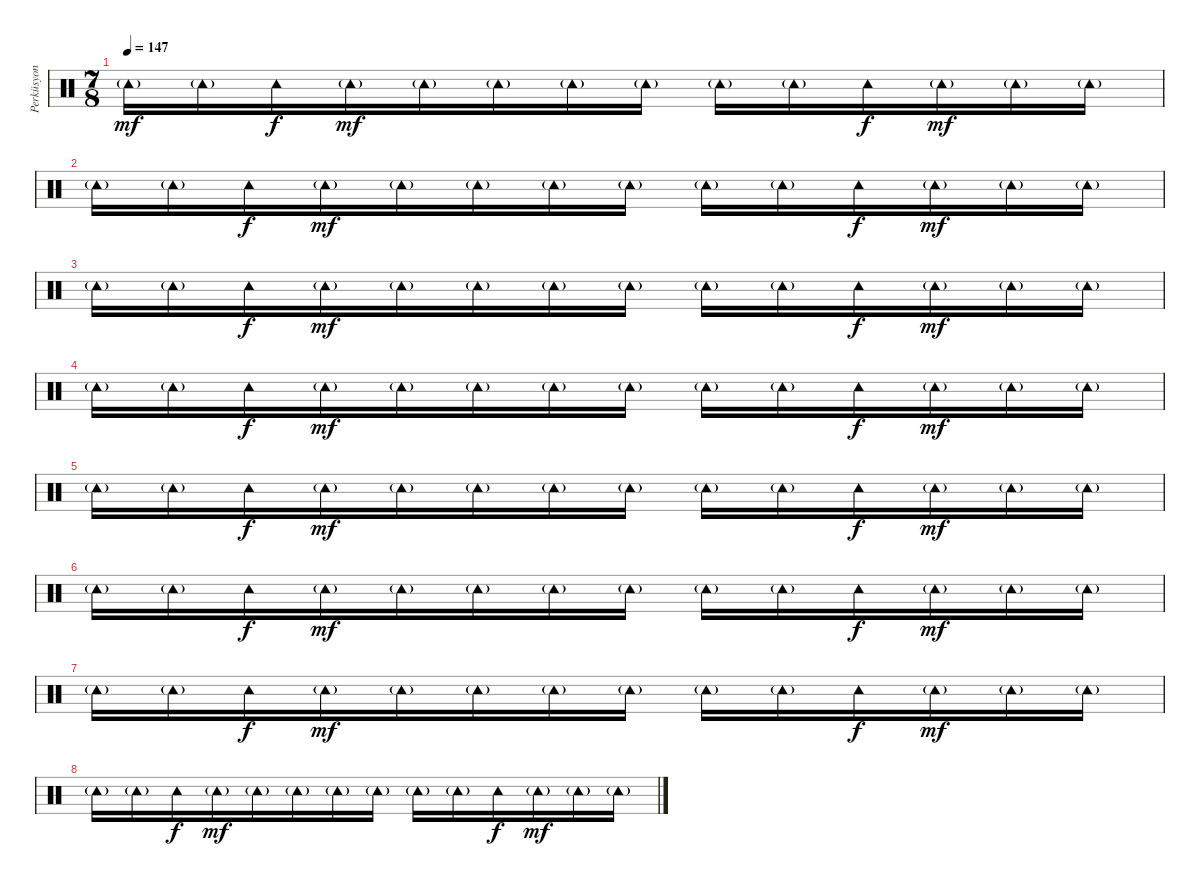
\track ("Perküsyon" "Perküsyon") {instrument percussion}
\staff {score}
\articulation defaults
\ts (7 8)
\tempo 147
\clef neutral
\ks c "Tambourine (hit)"{g}.16{dy mf} "Tambourine (hit)"{g}.16 "Tambourine (hit)".16{dy f} "Tambourine (hit)"{g}.16{dy mf} "Tambourine (hit)"{g}.16 "Tambourine (hit)"{g}.16 "Tambourine (hit)"{g}.16 "Tambourine (hit)"{g}.16 "Tambourine (hit)"{g}.16 "Tambourine (hit)"{g}.16 "Tambourine (hit)".16{dy f} "Tambourine (hit)"{g}.16{dy mf} "Tambourine (hit)"{g}.16 "Tambourine (hit)"{g}.16
|
"Tambourine (hit)"{g}.16 "Tambourine (hit)"{g}.16 "Tambourine (hit)".16{dy f} "Tambourine (hit)"{g}.16{dy mf} "Tambourine (hit)"{g}.16 "Tambourine (hit)"{g}.16 "Tambourine (hit)"{g}.16 "Tambourine (hit)"{g}.16 "Tambourine (hit)"{g}.16 "Tambourine (hit)"{g}.16 "Tambourine (hit)".16{dy f} "Tambourine (hit)"{g}.16{dy mf} "Tambourine (hit)"{g}.16 "Tambourine (hit)"{g}.16 |
"Tambourine (hit)"{g}.16 "Tambourine (hit)"{g}.16 "Tambourine (hit)".16{dy f} "Tambourine (hit)"{g}.16{dy mf} "Tambourine (hit)"{g}.16 "Tambourine (hit)"{g}.16 "Tambourine (hit)"{g}.16 "Tambourine (hit)"{g}.16 "Tambourine (hit)"{g}.16 "Tambourine (hit)"{g}.16 "Tambourine (hit)".16{dy f} "Tambourine (hit)"{g}.16{dy mf} "Tambourine (hit)"{g}.16 "Tambourine (hit)"{g}.16 |
"Tambourine (hit)"{g}.16 "Tambourine (hit)"{g}.16 "Tambourine (hit)".16{dy f} "Tambourine (hit)"{g}.16{dy mf} "Tambourine (hit)"{g}.16 "Tambourine (hit)"{g}.16 "Tambourine (hit)"{g}.16 "Tambourine (hit)"{g}.16 "Tambourine (hit)"{g}.16 "Tambourine (hit)"{g}.16 "Tambourine (hit)".16{dy f} "Tambourine (hit)"{g}.16{dy mf} "Tambourine (hit)"{g}.16 "Tambourine (hit)"{g}.16 |
"Tambourine (hit)"{g}.16 "Tambourine (hit)"{g}.16 "Tambourine (hit)".16{dy f} "Tambourine (hit)"{g}.16{dy mf} "Tambourine (hit)"{g}.16 "Tambourine (hit)"{g}.16 "Tambourine (hit)"{g}.16 "Tambourine (hit)"{g}.16 "Tambourine (hit)"{g}.16 "Tambourine (hit)"{g}.16 "Tambourine (hit)".16{dy f} "Tambourine (hit)"{g}.16{dy mf} "Tambourine (hit)"{g}.16 "Tambourine (hit)"{g}.16 |
"Tambourine (hit)"{g}.16 "Tambourine (hit)"{g}.16 "Tambourine (hit)".16{dy f} "Tambourine (hit)"{g}.16{dy mf} "Tambourine (hit)"{g}.16 "Tambourine (hit)"{g}.16 "Tambourine (hit)"{g}.16 "Tambourine (hit)"{g}.16 "Tambourine (hit)"{g}.16 "Tambourine (hit)"{g}.16 "Tambourine (hit)".16{dy f} "Tambourine (hit)"{g}.16{dy mf} "Tambourine (hit)"{g}.16 "Tambourine (hit)"{g}.16 |
"Tambourine (hit)"{g}.16 "Tambourine (hit)"{g}.16 "Tambourine (hit)".16{dy f} "Tambourine (hit)"{g}.16{dy mf} "Tambourine (hit)"{g}.16 "Tambourine (hit)"{g}.16 "Tambourine (hit)"{g}.16 "Tambourine (hit)"{g}.16 "Tambourine (hit)"{g}.16 "Tambourine (hit)"{g}.16 "Tambourine (hit)".16{dy f} "Tambourine (hit)"{g}.16{dy mf} "Tambourine (hit)"{g}.16 "Tambourine (hit)"{g}.16 |
"Tambourine (hit)"{g}.16 "Tambourine (hit)"{g}.16 "Tambourine (hit)".16{dy f} "Tambourine (hit)"{g}.16{dy mf} "Tambourine (hit)"{g}.16 "Tambourine (hit)"{g}.16 "Tambourine (hit)"{g}.16 "Tambourine (hit)"{g}.16 "Tambourine (hit)"{g}.16 "Tambourine (hit)"{g}.16 "Tambourine (hit)".16{dy f} "Tambourine (hit)"{g}.16{dy mf} "Tambourine (hit)"{g}.16 "Tambourine (hit)"{g}.16
